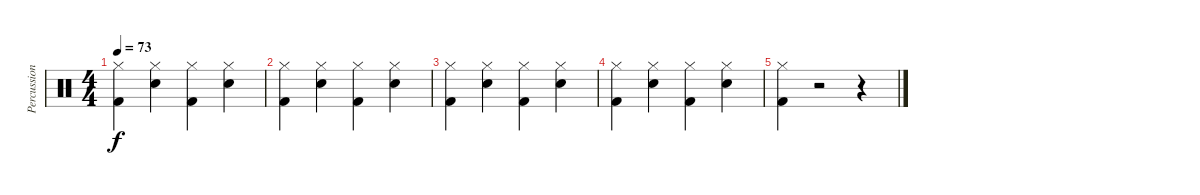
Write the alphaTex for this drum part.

\track ("Percussions" "Percussion") {instrument percussion}
\staff {score}
\articulation defaults
\ts (4 4)
\tempo 73
\clef neutral
\ks c
("Hi-Hat (closed)" "Kick (hit) 2").4{dy f} ("Hi-Hat (closed)" "Electric Snare (hit)").4 ("Hi-Hat (closed)" "Kick (hit) 2").4 ("Hi-Hat (closed)" "Electric Snare (hit)").4 |
("Hi-Hat (closed)" "Kick (hit) 2").4 ("Hi-Hat (closed)" "Electric Snare (hit)").4 ("Hi-Hat (closed)" "Kick (hit) 2").4 ("Hi-Hat (closed)" "Electric Snare (hit)").4 |
("Hi-Hat (closed)" "Kick (hit) 2").4 ("Hi-Hat (closed)" "Electric Snare (hit)").4 ("Hi-Hat (closed)" "Kick (hit) 2").4 ("Hi-Hat (closed)" "Electric Snare (hit)").4 |
("Hi-Hat (closed)" "Kick (hit) 2").4 ("Hi-Hat (closed)" "Electric Snare (hit)").4 ("Hi-Hat (closed)" "Kick (hit) 2").4 ("Hi-Hat (closed)" "Electric Snare (hit)").4 |
("Hi-Hat (closed)" "Kick (hit) 2").4 r.2 r.4
